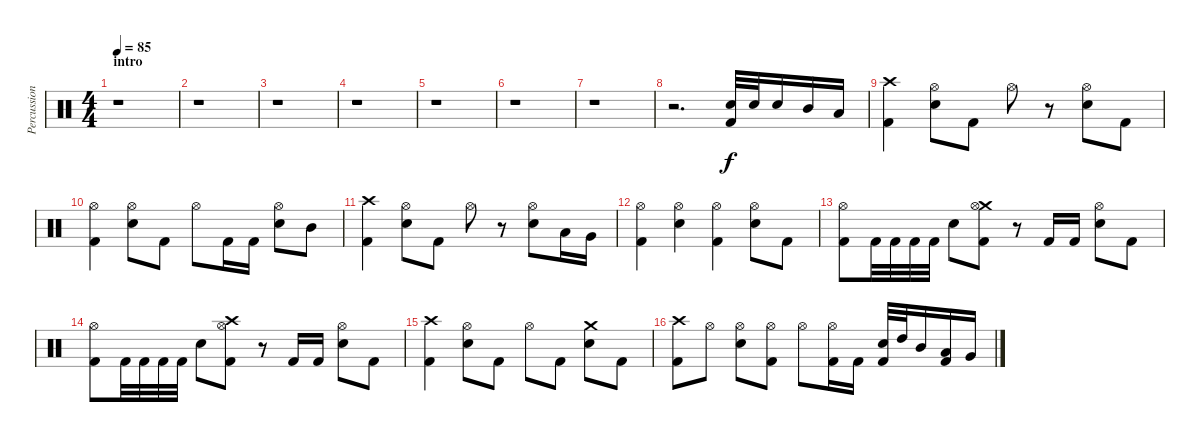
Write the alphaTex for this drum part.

\track ("Percussion" "Percussion") {instrument percussion}
\staff {score}
\articulation defaults
\ts (4 4)
\section ("" "intro")
\tempo 85
\clef neutral
\ks c
r.1{dy f} |
r.1 |
r.1 |
r.1 |
r.1 |
r.1 |
r.1 |
r.2{d} ("Snare (hit) 2" "Kick (hit) 2").32 "Snare (hit) 2".32 "Snare (hit) 2".16 "Mid Tom (hit)".16 "Low Tom (hit)".16 |
\section ("" "")
("Crash high (hit)" "Kick (hit) 2").4 ("Hi-Hat (open)" "Snare (hit) 2").8 "Kick (hit) 2".8 "Hi-Hat (open)".8 r.8 ("Hi-Hat (open)" "Snare (hit) 2").8 "Kick (hit) 2".8 |
("Hi-Hat (open)" "Kick (hit) 2").4 ("Hi-Hat (open)" "Snare (hit) 2").8 "Kick (hit) 2".8 "Hi-Hat (open)".8 "Kick (hit) 2".16 "Kick (hit) 2".16 ("Hi-Hat (open)" "Snare (hit) 2").8 "Mid Tom (hit)".8 |
("Crash high (hit)" "Kick (hit) 2").4 ("Hi-Hat (open)" "Snare (hit) 2").8 "Kick (hit) 2".8 "Hi-Hat (open)".8 r.8 ("Hi-Hat (open)" "Snare (hit) 2").8 "Low Tom (hit)".16 "Very Low Tom (hit)".16 |
("Hi-Hat (open)" "Kick (hit) 2").4 ("Hi-Hat (open)" "Snare (hit) 2").4 ("Hi-Hat (open)" "Kick (hit) 2").4 ("Hi-Hat (open)" "Snare (hit) 2").8 "Kick (hit) 2".8 |
("Hi-Hat (open)" "Kick (hit) 2").8 "Kick (hit) 2".32 "Kick (hit) 2".32 "Kick (hit) 2".32 "Kick (hit) 2".32 "Snare (hit) 2".8 ("Crash medium (hit)" "Hi-Hat (open)" "Kick (hit) 2").8 r.8 "Kick (hit) 2".16 "Kick (hit) 2".16 ("Hi-Hat (open)" "Snare (hit) 2").8 "Kick (hit) 2".8 |
("Hi-Hat (open)" "Kick (hit) 2").8 "Kick (hit) 2".32 "Kick (hit) 2".32 "Kick (hit) 2".32 "Kick (hit) 2".32 "Snare (hit) 2".8 ("Crash high (hit)" "Hi-Hat (open)" "Kick (hit) 2").8 r.8 "Kick (hit) 2".16 "Kick (hit) 2".16 ("Hi-Hat (open)" "Snare (hit) 2").8 "Kick (hit) 2".8 |
("Crash high (hit)" "Kick (hit) 2").4 ("Hi-Hat (open)" "Snare (hit) 2").8 "Kick (hit) 2".8 "Hi-Hat (open)".8 "Kick (hit) 2".8 ("Crash medium (hit)" "Snare (hit) 2").8 "Kick (hit) 2".8 |
("Crash high (hit)" "Kick (hit) 2").8 "Hi-Hat (open)".8 ("Hi-Hat (open)" "Snare (hit) 2").8 ("Hi-Hat (open)" "Kick (hit) 2").8 "Hi-Hat (open)".8 ("Hi-Hat (open)" "Kick (hit) 2").16 "Kick (hit) 2".16 ("Snare (hit) 2" "Kick (hit) 2").32 "High Tom (hit)".32 "Mid Tom (hit)".16 ("Low Tom (hit)" "Kick (hit) 2").16 "Very Low Tom (hit)".16
